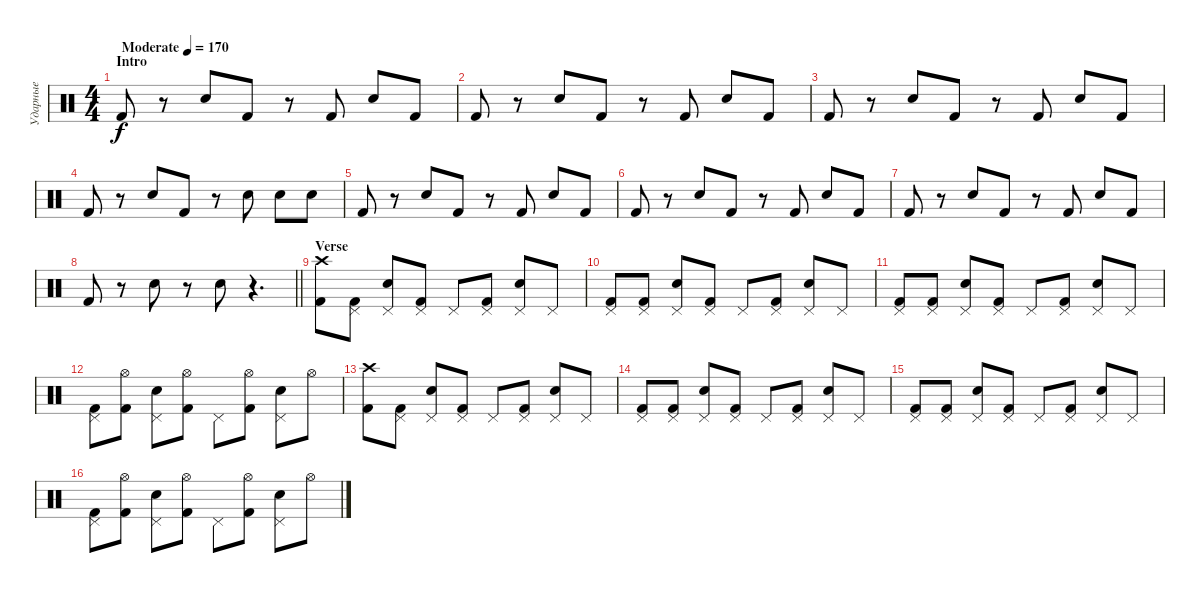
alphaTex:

\track ("Ударные" "Ударные") {instrument percussion}
\staff {score}
\articulation defaults
\ts (4 4)
\section ("" "Intro")
\tempo (170 "Moderate")
\clef neutral
\ks c "Kick (hit) 2".8{dy f}
r.8 "Snare (hit) 2".8 "Kick (hit) 2".8 r.8 "Kick (hit) 2".8 "Snare (hit) 2".8 "Kick (hit) 2".8 |
"Kick (hit) 2".8 r.8 "Snare (hit) 2".8 "Kick (hit) 2".8 r.8 "Kick (hit) 2".8 "Snare (hit) 2".8 "Kick (hit) 2".8 |
"Kick (hit) 2".8 r.8 "Snare (hit) 2".8 "Kick (hit) 2".8 r.8 "Kick (hit) 2".8 "Snare (hit) 2".8 "Kick (hit) 2".8 |
"Kick (hit) 2".8 r.8 "Snare (hit) 2".8 "Kick (hit) 2".8 r.8 "Snare (hit) 2".8 "Snare (hit) 2".8 "Snare (hit) 2".8 |
"Kick (hit) 2".8 r.8 "Snare (hit) 2".8 "Kick (hit) 2".8 r.8 "Kick (hit) 2".8 "Snare (hit) 2".8 "Kick (hit) 2".8 |
"Kick (hit) 2".8 r.8 "Snare (hit) 2".8 "Kick (hit) 2".8 r.8 "Kick (hit) 2".8 "Snare (hit) 2".8 "Kick (hit) 2".8 |
"Kick (hit) 2".8 r.8 "Snare (hit) 2".8 "Kick (hit) 2".8 r.8 "Kick (hit) 2".8 "Snare (hit) 2".8 "Kick (hit) 2".8 |
\barLineRight lightlight "Kick (hit) 2".8
r.8 "Snare (hit) 2".8 r.8 "Snare (hit) 2".8 r.4{d} |
\section ("" "Verse")
("Crash high (hit)" "Kick (hit) 2").8 ("Pedal Hi-Hat (hit)" "Kick (hit) 2").8 ("Pedal Hi-Hat (hit)" "Electric Snare (hit)").8 ("Pedal Hi-Hat (hit)" "Kick (hit) 2").8 "Pedal Hi-Hat (hit)".8 ("Pedal Hi-Hat (hit)" "Kick (hit) 2").8 ("Pedal Hi-Hat (hit)" "Electric Snare (hit)").8 "Pedal Hi-Hat (hit)".8 |
("Pedal Hi-Hat (hit)" "Kick (hit) 2").8 ("Pedal Hi-Hat (hit)" "Kick (hit) 2").8 ("Pedal Hi-Hat (hit)" "Electric Snare (hit)").8 ("Pedal Hi-Hat (hit)" "Kick (hit) 2").8 "Pedal Hi-Hat (hit)".8 ("Pedal Hi-Hat (hit)" "Kick (hit) 2").8 ("Pedal Hi-Hat (hit)" "Electric Snare (hit)").8 "Pedal Hi-Hat (hit)".8 |
("Pedal Hi-Hat (hit)" "Kick (hit) 2").8 ("Pedal Hi-Hat (hit)" "Kick (hit) 2").8 ("Pedal Hi-Hat (hit)" "Electric Snare (hit)").8 ("Pedal Hi-Hat (hit)" "Kick (hit) 2").8 "Pedal Hi-Hat (hit)".8 ("Pedal Hi-Hat (hit)" "Kick (hit) 2").8 ("Pedal Hi-Hat (hit)" "Electric Snare (hit)").8 "Pedal Hi-Hat (hit)".8 |
("Pedal Hi-Hat (hit)" "Kick (hit) 2").8 ("Hi-Hat (open)" "Kick (hit) 2").8 ("Pedal Hi-Hat (hit)" "Electric Snare (hit)").8 ("Hi-Hat (open)" "Kick (hit) 2").8 "Pedal Hi-Hat (hit)".8 ("Hi-Hat (open)" "Kick (hit) 2").8 ("Pedal Hi-Hat (hit)" "Electric Snare (hit)").8 "Hi-Hat (open)".8 |
("Crash high (hit)" "Kick (hit) 2").8 ("Pedal Hi-Hat (hit)" "Kick (hit) 2").8 ("Pedal Hi-Hat (hit)" "Electric Snare (hit)").8 ("Pedal Hi-Hat (hit)" "Kick (hit) 2").8 "Pedal Hi-Hat (hit)".8 ("Pedal Hi-Hat (hit)" "Kick (hit) 2").8 ("Pedal Hi-Hat (hit)" "Electric Snare (hit)").8 "Pedal Hi-Hat (hit)".8 |
("Pedal Hi-Hat (hit)" "Kick (hit) 2").8 ("Pedal Hi-Hat (hit)" "Kick (hit) 2").8 ("Pedal Hi-Hat (hit)" "Electric Snare (hit)").8 ("Pedal Hi-Hat (hit)" "Kick (hit) 2").8 "Pedal Hi-Hat (hit)".8 ("Pedal Hi-Hat (hit)" "Kick (hit) 2").8 ("Pedal Hi-Hat (hit)" "Electric Snare (hit)").8 "Pedal Hi-Hat (hit)".8 |
("Pedal Hi-Hat (hit)" "Kick (hit) 2").8 ("Pedal Hi-Hat (hit)" "Kick (hit) 2").8 ("Pedal Hi-Hat (hit)" "Electric Snare (hit)").8 ("Pedal Hi-Hat (hit)" "Kick (hit) 2").8 "Pedal Hi-Hat (hit)".8 ("Pedal Hi-Hat (hit)" "Kick (hit) 2").8 ("Pedal Hi-Hat (hit)" "Electric Snare (hit)").8 "Pedal Hi-Hat (hit)".8 |
("Pedal Hi-Hat (hit)" "Kick (hit) 2").8 ("Hi-Hat (open)" "Kick (hit) 2").8 ("Pedal Hi-Hat (hit)" "Electric Snare (hit)").8 ("Hi-Hat (open)" "Kick (hit) 2").8 "Pedal Hi-Hat (hit)".8 ("Hi-Hat (open)" "Kick (hit) 2").8 ("Pedal Hi-Hat (hit)" "Electric Snare (hit)").8 "Hi-Hat (open)".8
